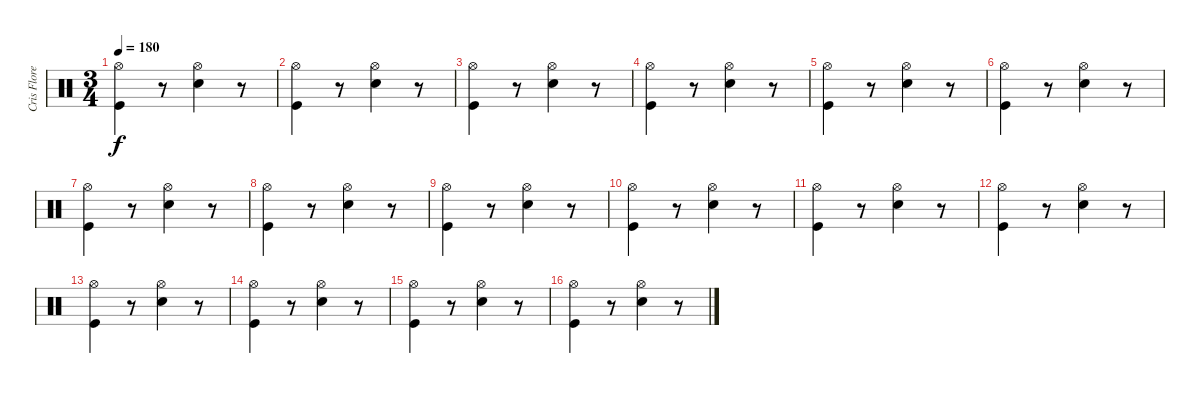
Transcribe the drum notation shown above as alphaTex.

\track ("Cris Flores" "Cris Flore") {instrument percussion}
\staff {score}
\articulation defaults
\ts (3 4)
\tempo 180
\clef neutral
\ks c
("Kick (hit)" "Hi-Hat (open)").4{dy f} r.8 ("Snare (hit) 2" "Hi-Hat (open)").4 r.8 |
("Kick (hit)" "Hi-Hat (open)").4 r.8 ("Snare (hit) 2" "Hi-Hat (open)").4 r.8 |
("Kick (hit)" "Hi-Hat (open)").4 r.8 ("Snare (hit) 2" "Hi-Hat (open)").4 r.8 |
("Kick (hit)" "Hi-Hat (open)").4 r.8 ("Snare (hit) 2" "Hi-Hat (open)").4 r.8 |
("Kick (hit)" "Hi-Hat (open)").4 r.8 ("Snare (hit) 2" "Hi-Hat (open)").4 r.8 |
("Kick (hit)" "Hi-Hat (open)").4 r.8 ("Snare (hit) 2" "Hi-Hat (open)").4 r.8 |
("Kick (hit)" "Hi-Hat (open)").4 r.8 ("Snare (hit) 2" "Hi-Hat (open)").4 r.8 |
("Kick (hit)" "Hi-Hat (open)").4 r.8 ("Snare (hit) 2" "Hi-Hat (open)").4 r.8 |
("Kick (hit)" "Hi-Hat (open)").4 r.8 ("Snare (hit) 2" "Hi-Hat (open)").4 r.8 |
("Kick (hit)" "Hi-Hat (open)").4 r.8 ("Snare (hit) 2" "Hi-Hat (open)").4 r.8 |
("Kick (hit)" "Hi-Hat (open)").4 r.8 ("Snare (hit) 2" "Hi-Hat (open)").4 r.8 |
("Kick (hit)" "Hi-Hat (open)").4 r.8 ("Snare (hit) 2" "Hi-Hat (open)").4 r.8 |
("Kick (hit)" "Hi-Hat (open)").4 r.8 ("Snare (hit) 2" "Hi-Hat (open)").4 r.8 |
("Kick (hit)" "Hi-Hat (open)").4 r.8 ("Snare (hit) 2" "Hi-Hat (open)").4 r.8 |
("Kick (hit)" "Hi-Hat (open)").4 r.8 ("Snare (hit) 2" "Hi-Hat (open)").4 r.8 |
("Kick (hit)" "Hi-Hat (open)").4 r.8 ("Snare (hit) 2" "Hi-Hat (open)").4 r.8
